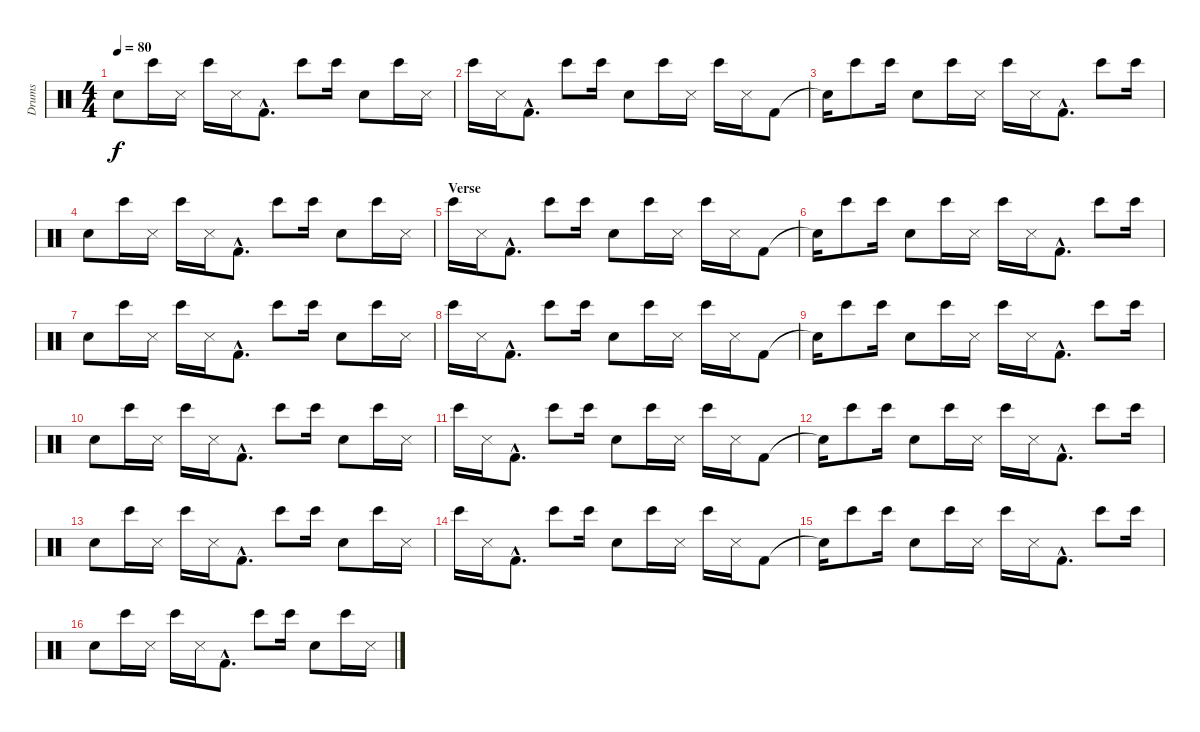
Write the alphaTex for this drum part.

\track ("Drums" "Drums") {instrument percussion}
\staff {score}
\articulation defaults
\ts (4 4)
\tempo 80
\clef neutral
\ks c "Electric Snare (hit)".8{dy f} "Bongo High (hit)".16 "Snare (side stick) 3".16 "Bongo High (hit)".16 "Snare (side stick) 3".16 "Kick (hit) 2"{hac}.8{d} "Bongo High (hit)".8 "Bongo High (hit)".16 "Electric Snare (hit)".8 "Bongo High (hit)".16 "Snare (side stick) 3".16
|
"Bongo High (hit)".16 "Snare (side stick) 3".16 "Kick (hit) 2"{hac}.8{d} "Bongo High (hit)".8 "Bongo High (hit)".16 "Electric Snare (hit)".8 "Bongo High (hit)".16 "Snare (side stick) 3".16 "Bongo High (hit)".16 "Snare (side stick) 3".16 "Kick (hit) 2".8 |
"Snare (hit)"{t}.16 "Bongo High (hit)".8 "Bongo High (hit)".16 "Electric Snare (hit)".8 "Bongo High (hit)".16 "Snare (side stick) 3".16 "Bongo High (hit)".16 "Snare (side stick) 3".16 "Kick (hit) 2"{hac}.8{d} "Bongo High (hit)".8 "Bongo High (hit)".16 |
"Electric Snare (hit)".8 "Bongo High (hit)".16 "Snare (side stick) 3".16 "Bongo High (hit)".16 "Snare (side stick) 3".16 "Kick (hit) 2"{hac}.8{d} "Bongo High (hit)".8 "Bongo High (hit)".16 "Electric Snare (hit)".8 "Bongo High (hit)".16 "Snare (side stick) 3".16 |
\section ("" "Verse")
"Bongo High (hit)".16 "Snare (side stick) 3".16 "Kick (hit) 2"{hac}.8{d} "Bongo High (hit)".8 "Bongo High (hit)".16 "Electric Snare (hit)".8 "Bongo High (hit)".16 "Snare (side stick) 3".16 "Bongo High (hit)".16 "Snare (side stick) 3".16 "Kick (hit) 2".8 |
"Snare (hit)"{t}.16 "Bongo High (hit)".8 "Bongo High (hit)".16 "Electric Snare (hit)".8 "Bongo High (hit)".16 "Snare (side stick) 3".16 "Bongo High (hit)".16 "Snare (side stick) 3".16 "Kick (hit) 2"{hac}.8{d} "Bongo High (hit)".8 "Bongo High (hit)".16 |
"Electric Snare (hit)".8 "Bongo High (hit)".16 "Snare (side stick) 3".16 "Bongo High (hit)".16 "Snare (side stick) 3".16 "Kick (hit) 2"{hac}.8{d} "Bongo High (hit)".8 "Bongo High (hit)".16 "Electric Snare (hit)".8 "Bongo High (hit)".16 "Snare (side stick) 3".16 |
"Bongo High (hit)".16 "Snare (side stick) 3".16 "Kick (hit) 2"{hac}.8{d} "Bongo High (hit)".8 "Bongo High (hit)".16 "Electric Snare (hit)".8 "Bongo High (hit)".16 "Snare (side stick) 3".16 "Bongo High (hit)".16 "Snare (side stick) 3".16 "Kick (hit) 2".8 |
"Snare (hit)"{t}.16 "Bongo High (hit)".8 "Bongo High (hit)".16 "Electric Snare (hit)".8 "Bongo High (hit)".16 "Snare (side stick) 3".16 "Bongo High (hit)".16 "Snare (side stick) 3".16 "Kick (hit) 2"{hac}.8{d} "Bongo High (hit)".8 "Bongo High (hit)".16 |
"Electric Snare (hit)".8 "Bongo High (hit)".16 "Snare (side stick) 3".16 "Bongo High (hit)".16 "Snare (side stick) 3".16 "Kick (hit) 2"{hac}.8{d} "Bongo High (hit)".8 "Bongo High (hit)".16 "Electric Snare (hit)".8 "Bongo High (hit)".16 "Snare (side stick) 3".16 |
"Bongo High (hit)".16 "Snare (side stick) 3".16 "Kick (hit) 2"{hac}.8{d} "Bongo High (hit)".8 "Bongo High (hit)".16 "Electric Snare (hit)".8 "Bongo High (hit)".16 "Snare (side stick) 3".16 "Bongo High (hit)".16 "Snare (side stick) 3".16 "Kick (hit) 2".8 |
"Snare (hit)"{t}.16 "Bongo High (hit)".8 "Bongo High (hit)".16 "Electric Snare (hit)".8 "Bongo High (hit)".16 "Snare (side stick) 3".16 "Bongo High (hit)".16 "Snare (side stick) 3".16 "Kick (hit) 2"{hac}.8{d} "Bongo High (hit)".8 "Bongo High (hit)".16 |
"Electric Snare (hit)".8 "Bongo High (hit)".16 "Snare (side stick) 3".16 "Bongo High (hit)".16 "Snare (side stick) 3".16 "Kick (hit) 2"{hac}.8{d} "Bongo High (hit)".8 "Bongo High (hit)".16 "Electric Snare (hit)".8 "Bongo High (hit)".16 "Snare (side stick) 3".16 |
"Bongo High (hit)".16 "Snare (side stick) 3".16 "Kick (hit) 2"{hac}.8{d} "Bongo High (hit)".8 "Bongo High (hit)".16 "Electric Snare (hit)".8 "Bongo High (hit)".16 "Snare (side stick) 3".16 "Bongo High (hit)".16 "Snare (side stick) 3".16 "Kick (hit) 2".8 |
"Snare (hit)"{t}.16 "Bongo High (hit)".8 "Bongo High (hit)".16 "Electric Snare (hit)".8 "Bongo High (hit)".16 "Snare (side stick) 3".16 "Bongo High (hit)".16 "Snare (side stick) 3".16 "Kick (hit) 2"{hac}.8{d} "Bongo High (hit)".8 "Bongo High (hit)".16 |
"Electric Snare (hit)".8 "Bongo High (hit)".16 "Snare (side stick) 3".16 "Bongo High (hit)".16 "Snare (side stick) 3".16 "Kick (hit) 2"{hac}.8{d} "Bongo High (hit)".8 "Bongo High (hit)".16 "Electric Snare (hit)".8 "Bongo High (hit)".16 "Snare (side stick) 3".16
